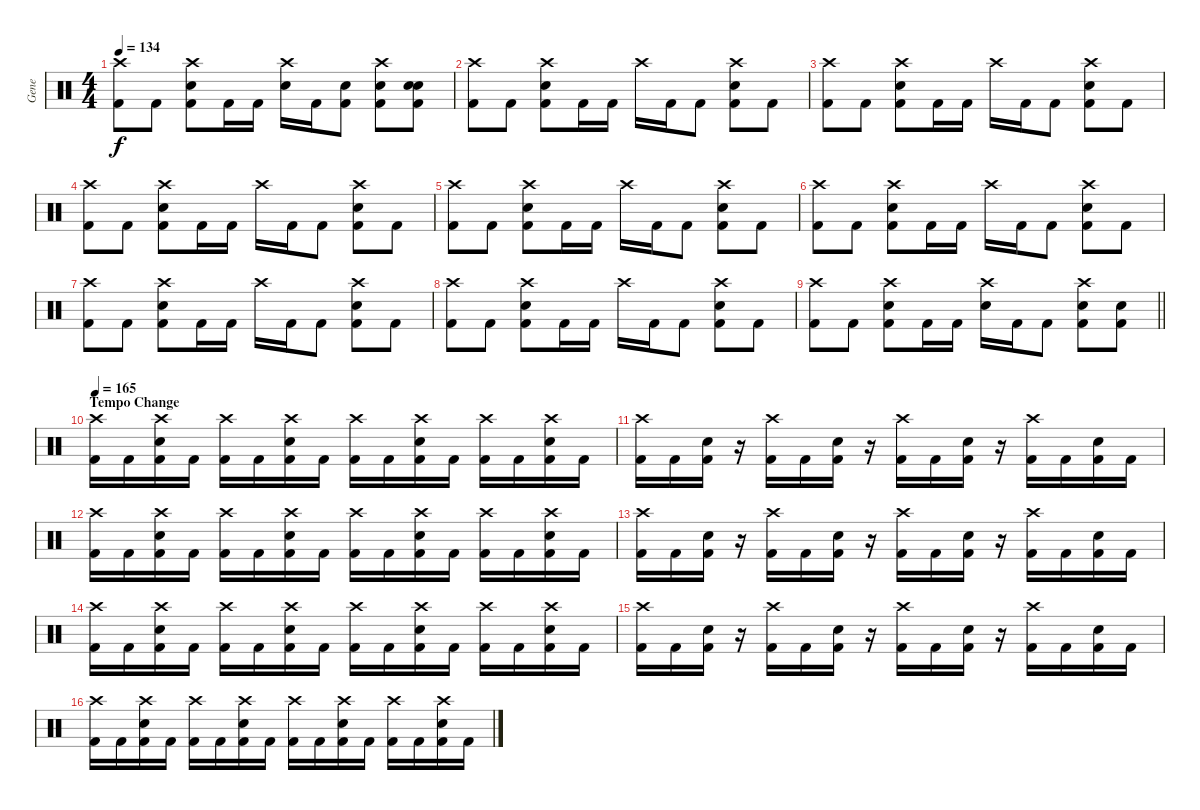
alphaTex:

\track ("Gene" "Gene") {instrument percussion}
\staff {score}
\articulation defaults
\ts (4 4)
\tempo 134
\clef neutral
\ks c
("Crash high (hit)" "Kick (hit) 2").8{dy f} "Kick (hit) 2".8 ("Electric Snare (hit)" "Crash high (hit)" "Kick (hit) 2").8 "Kick (hit) 2".16 "Kick (hit) 2".16 ("Crash high (hit)" "Electric Snare (hit)").16 "Kick (hit) 2".16 ("Electric Snare (hit)" "Kick (hit) 2").8 ("Crash high (hit)" "Electric Snare (hit)" "Kick (hit) 2").8 ("Electric Snare (hit)" "Electric Snare (hit)" "Kick (hit) 2").8 |
("Crash high (hit)" "Kick (hit) 2").8 "Kick (hit) 2".8 ("Electric Snare (hit)" "Crash high (hit)" "Kick (hit) 2").8 "Kick (hit) 2".16 "Kick (hit) 2".16 "Crash high (hit)".16 "Kick (hit) 2".16 "Kick (hit) 2".8 ("Crash high (hit)" "Electric Snare (hit)" "Kick (hit) 2").8 "Kick (hit) 2".8 |
("Crash high (hit)" "Kick (hit) 2").8 "Kick (hit) 2".8 ("Electric Snare (hit)" "Crash high (hit)" "Kick (hit) 2").8 "Kick (hit) 2".16 "Kick (hit) 2".16 "Crash high (hit)".16 "Kick (hit) 2".16 "Kick (hit) 2".8 ("Crash high (hit)" "Electric Snare (hit)" "Kick (hit) 2").8 "Kick (hit) 2".8 |
("Crash high (hit)" "Kick (hit) 2").8 "Kick (hit) 2".8 ("Electric Snare (hit)" "Crash high (hit)" "Kick (hit) 2").8 "Kick (hit) 2".16 "Kick (hit) 2".16 "Crash high (hit)".16 "Kick (hit) 2".16 "Kick (hit) 2".8 ("Crash high (hit)" "Electric Snare (hit)" "Kick (hit) 2").8 "Kick (hit) 2".8 |
("Crash high (hit)" "Kick (hit) 2").8 "Kick (hit) 2".8 ("Electric Snare (hit)" "Crash high (hit)" "Kick (hit) 2").8 "Kick (hit) 2".16 "Kick (hit) 2".16 "Crash high (hit)".16 "Kick (hit) 2".16 "Kick (hit) 2".8 ("Crash high (hit)" "Electric Snare (hit)" "Kick (hit) 2").8 "Kick (hit) 2".8 |
("Crash high (hit)" "Kick (hit) 2").8 "Kick (hit) 2".8 ("Electric Snare (hit)" "Crash high (hit)" "Kick (hit) 2").8 "Kick (hit) 2".16 "Kick (hit) 2".16 "Crash high (hit)".16 "Kick (hit) 2".16 "Kick (hit) 2".8 ("Crash high (hit)" "Electric Snare (hit)" "Kick (hit) 2").8 "Kick (hit) 2".8 |
("Crash high (hit)" "Kick (hit) 2").8 "Kick (hit) 2".8 ("Electric Snare (hit)" "Crash high (hit)" "Kick (hit) 2").8 "Kick (hit) 2".16 "Kick (hit) 2".16 "Crash high (hit)".16 "Kick (hit) 2".16 "Kick (hit) 2".8 ("Crash high (hit)" "Electric Snare (hit)" "Kick (hit) 2").8 "Kick (hit) 2".8 |
("Crash high (hit)" "Kick (hit) 2").8 "Kick (hit) 2".8 ("Electric Snare (hit)" "Crash high (hit)" "Kick (hit) 2").8 "Kick (hit) 2".16 "Kick (hit) 2".16 "Crash high (hit)".16 "Kick (hit) 2".16 "Kick (hit) 2".8 ("Crash high (hit)" "Electric Snare (hit)" "Kick (hit) 2").8 "Kick (hit) 2".8 |
\barLineRight lightlight
("Crash high (hit)" "Kick (hit) 2").8 "Kick (hit) 2".8 ("Electric Snare (hit)" "Crash high (hit)" "Kick (hit) 2").8 "Kick (hit) 2".16 "Kick (hit) 2".16 ("Crash high (hit)" "Electric Snare (hit)").16 "Kick (hit) 2".16 "Kick (hit) 2".8 ("Crash high (hit)" "Electric Snare (hit)" "Kick (hit) 2").8 ("Electric Snare (hit)" "Kick (hit) 2").8 |
\section ("" "Tempo Change")
\tempo 165
("Crash high (hit)" "Kick (hit) 2").16 "Kick (hit) 2".16 ("Crash high (hit)" "Electric Snare (hit)" "Kick (hit) 2").16 "Kick (hit) 2".16 ("Crash high (hit)" "Kick (hit) 2").16 "Kick (hit) 2".16 ("Crash high (hit)" "Electric Snare (hit)" "Kick (hit) 2").16 "Kick (hit) 2".16 ("Crash high (hit)" "Kick (hit) 2").16 "Kick (hit) 2".16 ("Crash high (hit)" "Electric Snare (hit)" "Kick (hit) 2").16 "Kick (hit) 2".16 ("Crash high (hit)" "Kick (hit) 2").16 "Kick (hit) 2".16 ("Crash high (hit)" "Electric Snare (hit)" "Kick (hit) 2").16 "Kick (hit) 2".16 |
("Crash high (hit)" "Kick (hit) 2").16 "Kick (hit) 2".16 ("Electric Snare (hit)" "Kick (hit) 2").16 r.16 ("Crash high (hit)" "Kick (hit) 2").16 "Kick (hit) 2".16 ("Electric Snare (hit)" "Kick (hit) 2").16 r.16 ("Crash high (hit)" "Kick (hit) 2").16 "Kick (hit) 2".16 ("Electric Snare (hit)" "Kick (hit) 2").16 r.16 ("Crash high (hit)" "Kick (hit) 2").16 "Kick (hit) 2".16 ("Electric Snare (hit)" "Kick (hit) 2").16 "Kick (hit) 2".16 |
("Crash high (hit)" "Kick (hit) 2").16 "Kick (hit) 2".16 ("Crash high (hit)" "Electric Snare (hit)" "Kick (hit) 2").16 "Kick (hit) 2".16 ("Crash high (hit)" "Kick (hit) 2").16 "Kick (hit) 2".16 ("Crash high (hit)" "Electric Snare (hit)" "Kick (hit) 2").16 "Kick (hit) 2".16 ("Crash high (hit)" "Kick (hit) 2").16 "Kick (hit) 2".16 ("Crash high (hit)" "Electric Snare (hit)" "Kick (hit) 2").16 "Kick (hit) 2".16 ("Crash high (hit)" "Kick (hit) 2").16 "Kick (hit) 2".16 ("Crash high (hit)" "Electric Snare (hit)" "Kick (hit) 2").16 "Kick (hit) 2".16 |
("Crash high (hit)" "Kick (hit) 2").16 "Kick (hit) 2".16 ("Electric Snare (hit)" "Kick (hit) 2").16 r.16 ("Crash high (hit)" "Kick (hit) 2").16 "Kick (hit) 2".16 ("Electric Snare (hit)" "Kick (hit) 2").16 r.16 ("Crash high (hit)" "Kick (hit) 2").16 "Kick (hit) 2".16 ("Electric Snare (hit)" "Kick (hit) 2").16 r.16 ("Crash high (hit)" "Kick (hit) 2").16 "Kick (hit) 2".16 ("Electric Snare (hit)" "Kick (hit) 2").16 "Kick (hit) 2".16 |
("Crash high (hit)" "Kick (hit) 2").16 "Kick (hit) 2".16 ("Crash high (hit)" "Electric Snare (hit)" "Kick (hit) 2").16 "Kick (hit) 2".16 ("Crash high (hit)" "Kick (hit) 2").16 "Kick (hit) 2".16 ("Crash high (hit)" "Electric Snare (hit)" "Kick (hit) 2").16 "Kick (hit) 2".16 ("Crash high (hit)" "Kick (hit) 2").16 "Kick (hit) 2".16 ("Crash high (hit)" "Electric Snare (hit)" "Kick (hit) 2").16 "Kick (hit) 2".16 ("Crash high (hit)" "Kick (hit) 2").16 "Kick (hit) 2".16 ("Crash high (hit)" "Electric Snare (hit)" "Kick (hit) 2").16 "Kick (hit) 2".16 |
("Crash high (hit)" "Kick (hit) 2").16 "Kick (hit) 2".16 ("Electric Snare (hit)" "Kick (hit) 2").16 r.16 ("Crash high (hit)" "Kick (hit) 2").16 "Kick (hit) 2".16 ("Electric Snare (hit)" "Kick (hit) 2").16 r.16 ("Crash high (hit)" "Kick (hit) 2").16 "Kick (hit) 2".16 ("Electric Snare (hit)" "Kick (hit) 2").16 r.16 ("Crash high (hit)" "Kick (hit) 2").16 "Kick (hit) 2".16 ("Electric Snare (hit)" "Kick (hit) 2").16 "Kick (hit) 2".16 |
("Crash high (hit)" "Kick (hit) 2").16 "Kick (hit) 2".16 ("Crash high (hit)" "Electric Snare (hit)" "Kick (hit) 2").16 "Kick (hit) 2".16 ("Crash high (hit)" "Kick (hit) 2").16 "Kick (hit) 2".16 ("Crash high (hit)" "Electric Snare (hit)" "Kick (hit) 2").16 "Kick (hit) 2".16 ("Crash high (hit)" "Kick (hit) 2").16 "Kick (hit) 2".16 ("Crash high (hit)" "Electric Snare (hit)" "Kick (hit) 2").16 "Kick (hit) 2".16 ("Crash high (hit)" "Kick (hit) 2").16 "Kick (hit) 2".16 ("Crash high (hit)" "Electric Snare (hit)" "Kick (hit) 2").16 "Kick (hit) 2".16
